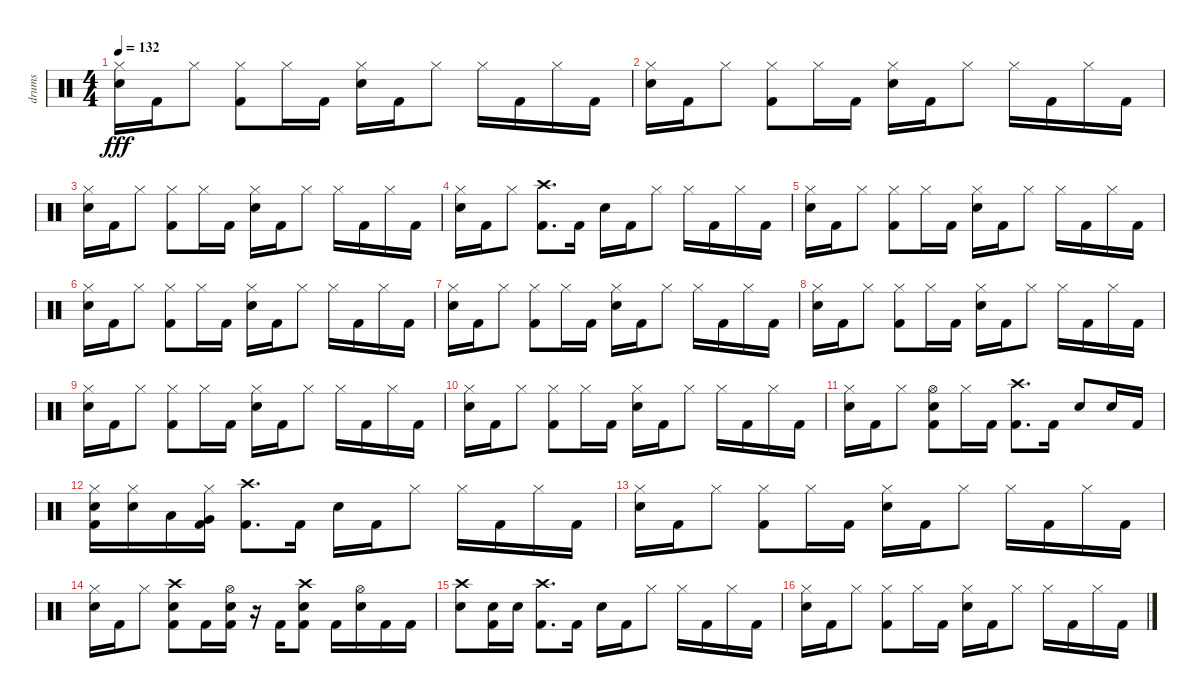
\track ("drums" "drums") {instrument percussion}
\staff {score}
\articulation defaults
\ts (4 4)
\tempo 132
\clef neutral
\ks c
("Snare (hit) 2" "Hi-Hat (closed)").16{dy fff} "Kick (hit) 2".16 "Hi-Hat (closed)".8 ("Kick (hit) 2" "Hi-Hat (closed)").8 "Hi-Hat (closed)".16 "Kick (hit) 2".16 ("Snare (hit) 2" "Hi-Hat (closed)").16 "Kick (hit) 2".16 "Hi-Hat (closed)".8 "Hi-Hat (closed)".16 "Kick (hit) 2".16 "Hi-Hat (closed)".16 "Kick (hit) 2".16 |
("Snare (hit) 2" "Hi-Hat (closed)").16 "Kick (hit) 2".16 "Hi-Hat (closed)".8 ("Kick (hit) 2" "Hi-Hat (closed)").8 "Hi-Hat (closed)".16 "Kick (hit) 2".16 ("Snare (hit) 2" "Hi-Hat (closed)").16 "Kick (hit) 2".16 "Hi-Hat (closed)".8 "Hi-Hat (closed)".16 "Kick (hit) 2".16 "Hi-Hat (closed)".16 "Kick (hit) 2".16 |
("Snare (hit) 2" "Hi-Hat (closed)").16 "Kick (hit) 2".16 "Hi-Hat (closed)".8 ("Kick (hit) 2" "Hi-Hat (closed)").8 "Hi-Hat (closed)".16 "Kick (hit) 2".16 ("Snare (hit) 2" "Hi-Hat (closed)").16 "Kick (hit) 2".16 "Hi-Hat (closed)".8 "Hi-Hat (closed)".16 "Kick (hit) 2".16 "Hi-Hat (closed)".16 "Kick (hit) 2".16 |
("Snare (hit) 2" "Hi-Hat (closed)").16 "Kick (hit) 2".16 "Hi-Hat (closed)".8 ("Kick (hit) 2" "Crash high (hit)").8{d} "Kick (hit) 2".16 "Snare (hit) 2".16 "Kick (hit) 2".16 "Hi-Hat (closed)".8 "Hi-Hat (closed)".16 "Kick (hit) 2".16 "Hi-Hat (closed)".16 "Kick (hit) 2".16 |
("Snare (hit) 2" "Hi-Hat (closed)").16 "Kick (hit) 2".16 "Hi-Hat (closed)".8 ("Kick (hit) 2" "Hi-Hat (closed)").8 "Hi-Hat (closed)".16 "Kick (hit) 2".16 ("Snare (hit) 2" "Hi-Hat (closed)").16 "Kick (hit) 2".16 "Hi-Hat (closed)".8 "Hi-Hat (closed)".16 "Kick (hit) 2".16 "Hi-Hat (closed)".16 "Kick (hit) 2".16 |
("Snare (hit) 2" "Hi-Hat (closed)").16 "Kick (hit) 2".16 "Hi-Hat (closed)".8 ("Kick (hit) 2" "Hi-Hat (closed)").8 "Hi-Hat (closed)".16 "Kick (hit) 2".16 ("Snare (hit) 2" "Hi-Hat (closed)").16 "Kick (hit) 2".16 "Hi-Hat (closed)".8 "Hi-Hat (closed)".16 "Kick (hit) 2".16 "Hi-Hat (closed)".16 "Kick (hit) 2".16 |
("Snare (hit) 2" "Hi-Hat (closed)").16 "Kick (hit) 2".16 "Hi-Hat (closed)".8 ("Kick (hit) 2" "Hi-Hat (closed)").8 "Hi-Hat (closed)".16 "Kick (hit) 2".16 ("Snare (hit) 2" "Hi-Hat (closed)").16 "Kick (hit) 2".16 "Hi-Hat (closed)".8 "Hi-Hat (closed)".16 "Kick (hit) 2".16 "Hi-Hat (closed)".16 "Kick (hit) 2".16 |
("Snare (hit) 2" "Hi-Hat (closed)").16 "Kick (hit) 2".16 "Hi-Hat (closed)".8 ("Kick (hit) 2" "Hi-Hat (closed)").8 "Hi-Hat (closed)".16 "Kick (hit) 2".16 ("Snare (hit) 2" "Hi-Hat (closed)").16 "Kick (hit) 2".16 "Hi-Hat (closed)".8 "Hi-Hat (closed)".16 "Kick (hit) 2".16 "Hi-Hat (closed)".16 "Kick (hit) 2".16 |
("Snare (hit) 2" "Hi-Hat (closed)").16 "Kick (hit) 2".16 "Hi-Hat (closed)".8 ("Kick (hit) 2" "Hi-Hat (closed)").8 "Hi-Hat (closed)".16 "Kick (hit) 2".16 ("Snare (hit) 2" "Hi-Hat (closed)").16 "Kick (hit) 2".16 "Hi-Hat (closed)".8 "Hi-Hat (closed)".16 "Kick (hit) 2".16 "Hi-Hat (closed)".16 "Kick (hit) 2".16 |
("Snare (hit) 2" "Hi-Hat (closed)").16 "Kick (hit) 2".16 "Hi-Hat (closed)".8 ("Kick (hit) 2" "Hi-Hat (closed)").8 "Hi-Hat (closed)".16 "Kick (hit) 2".16 ("Snare (hit) 2" "Hi-Hat (closed)").16 "Kick (hit) 2".16 "Hi-Hat (closed)".8 "Hi-Hat (closed)".16 "Kick (hit) 2".16 "Hi-Hat (closed)".16 "Kick (hit) 2".16 |
("Snare (hit) 2" "Hi-Hat (closed)").16 "Kick (hit) 2".16 "Hi-Hat (closed)".8 ("Kick (hit) 2" "Snare (hit) 2" "Hi-Hat (open)").8 "Hi-Hat (closed)".16 "Kick (hit) 2".16 ("Kick (hit) 2" "Crash high (hit)").8{d} "Kick (hit) 2".16 "Snare (hit) 2".8 "Snare (hit) 2".16 "Kick (hit) 2".16 |
("Kick (hit) 2" "Snare (hit) 2" "Hi-Hat (closed)").16 ("Snare (hit) 2" "Hi-Hat (closed)").16 "Low Tom (hit)".16 ("Kick (hit) 2" "Very Low Tom (hit)" "Hi-Hat (closed)").16 ("Kick (hit) 2" "Crash high (hit)").8{d} "Kick (hit) 2".16 "Snare (hit) 2".16 "Kick (hit) 2".16 "Hi-Hat (closed)".8 "Hi-Hat (closed)".16 "Kick (hit) 2".16 "Hi-Hat (closed)".16 "Kick (hit) 2".16 |
("Snare (hit) 2" "Hi-Hat (closed)").16 "Kick (hit) 2".16 "Hi-Hat (closed)".8 ("Kick (hit) 2" "Hi-Hat (closed)").8 "Hi-Hat (closed)".16 "Kick (hit) 2".16 ("Snare (hit) 2" "Hi-Hat (closed)").16 "Kick (hit) 2".16 "Hi-Hat (closed)".8 "Hi-Hat (closed)".16 "Kick (hit) 2".16 "Hi-Hat (closed)".16 "Kick (hit) 2".16 |
("Snare (hit) 2" "Hi-Hat (closed)").16 "Kick (hit) 2".16 "Hi-Hat (closed)".8 ("Kick (hit) 2" "Snare (hit) 2" "Crash high (hit)").8 "Kick (hit) 2".16 ("Kick (hit) 2" "Snare (hit) 2" "Hi-Hat (open)").16 r.16 "Kick (hit) 2".16 ("Kick (hit) 2" "Snare (hit) 2" "Crash high (hit)").8 "Kick (hit) 2".16 ("Snare (hit) 2" "Hi-Hat (open)").16 "Kick (hit) 2".16 "Kick (hit) 2".16 |
("Snare (hit) 2" "Crash high (hit)").8 ("Kick (hit) 2" "Snare (hit) 2").16 "Snare (hit) 2".16 ("Kick (hit) 2" "Crash high (hit)").8{d} "Kick (hit) 2".16 "Snare (hit) 2".16 "Kick (hit) 2".16 "Hi-Hat (closed)".8 "Hi-Hat (closed)".16 "Kick (hit) 2".16 "Hi-Hat (closed)".16 "Kick (hit) 2".16 |
("Snare (hit) 2" "Hi-Hat (closed)").16 "Kick (hit) 2".16 "Hi-Hat (closed)".8 ("Kick (hit) 2" "Hi-Hat (closed)").8 "Hi-Hat (closed)".16 "Kick (hit) 2".16 ("Snare (hit) 2" "Hi-Hat (closed)").16 "Kick (hit) 2".16 "Hi-Hat (closed)".8 "Hi-Hat (closed)".16 "Kick (hit) 2".16 "Hi-Hat (closed)".16 "Kick (hit) 2".16
